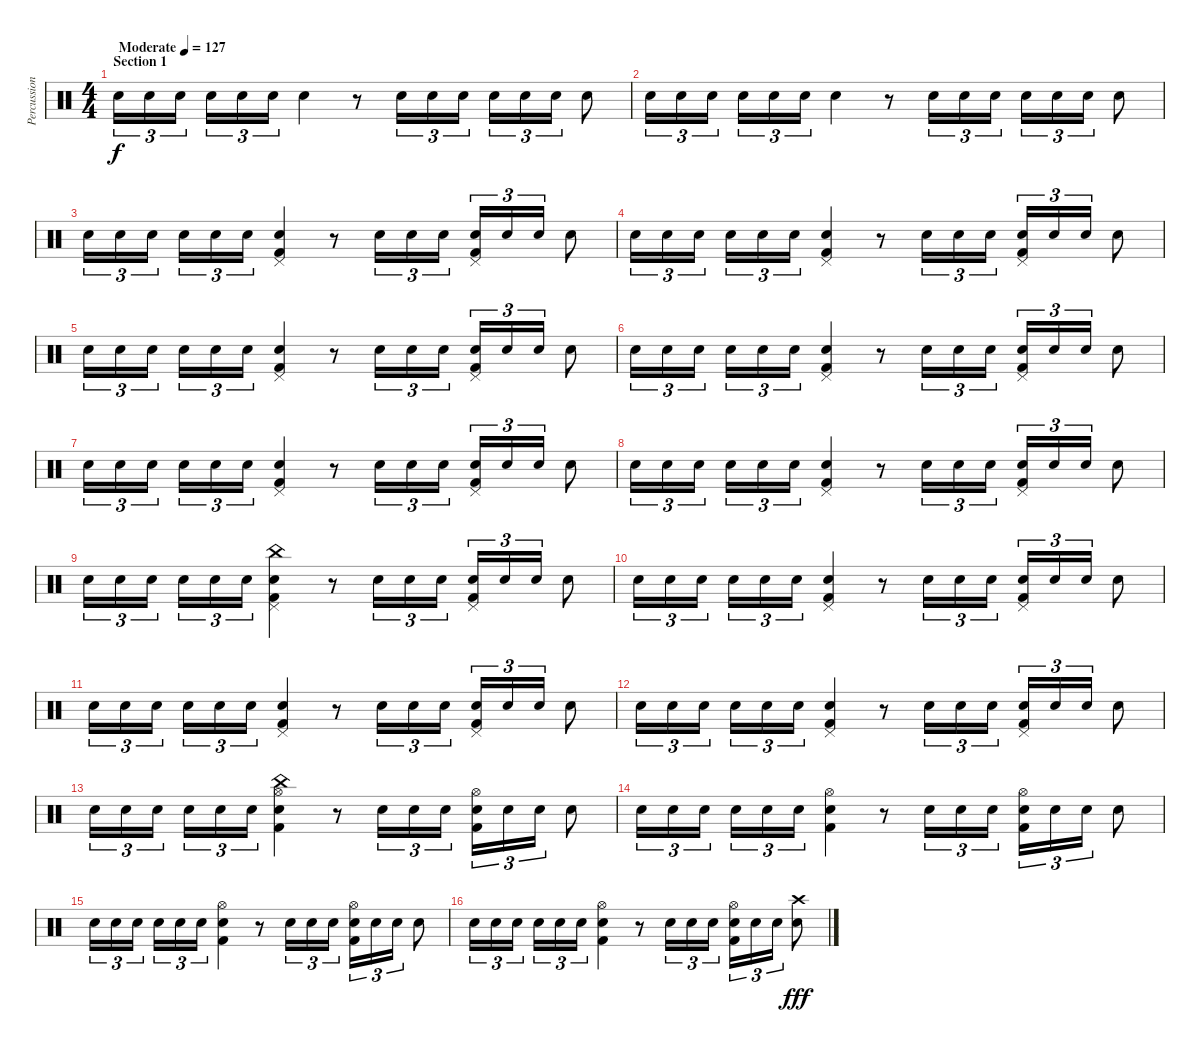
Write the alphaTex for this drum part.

\track ("Percussion" "Percussion") {instrument percussion}
\staff {score}
\articulation defaults
\ts (4 4)
\section ("" "Section 1")
\tempo (127 "Moderate")
\clef neutral
\ks c "Snare (hit) 2".16{tu (3 2) dy f} "Snare (hit) 2".16{tu (3 2)} "Snare (hit) 2".16{tu (3 2) beam splitsecondary} "Snare (hit) 2".16{tu (3 2)} "Snare (hit) 2".16{tu (3 2)} "Snare (hit) 2".16{tu (3 2)} "Snare (hit) 2".4
r.8 "Snare (hit) 2".16{tu (3 2)} "Snare (hit) 2".16{tu (3 2)} "Snare (hit) 2".16{tu (3 2)} "Snare (hit) 2".16{tu (3 2)} "Snare (hit) 2".16{tu (3 2)} "Snare (hit) 2".16{tu (3 2)} "Snare (hit) 2".8 |
"Snare (hit) 2".16{tu (3 2)} "Snare (hit) 2".16{tu (3 2)} "Snare (hit) 2".16{tu (3 2) beam splitsecondary} "Snare (hit) 2".16{tu (3 2)} "Snare (hit) 2".16{tu (3 2)} "Snare (hit) 2".16{tu (3 2)} "Snare (hit) 2".4 r.8 "Snare (hit) 2".16{tu (3 2)} "Snare (hit) 2".16{tu (3 2)} "Snare (hit) 2".16{tu (3 2)} "Snare (hit) 2".16{tu (3 2)} "Snare (hit) 2".16{tu (3 2)} "Snare (hit) 2".16{tu (3 2)} "Snare (hit) 2".8 |
"Snare (hit) 2".16{tu (3 2)} "Snare (hit) 2".16{tu (3 2)} "Snare (hit) 2".16{tu (3 2) beam splitsecondary} "Snare (hit) 2".16{tu (3 2)} "Snare (hit) 2".16{tu (3 2)} "Snare (hit) 2".16{tu (3 2)} ("Pedal Hi-Hat (hit)" "Snare (hit) 2" "Kick (hit) 2").4 r.8 "Snare (hit) 2".16{tu (3 2)} "Snare (hit) 2".16{tu (3 2)} "Snare (hit) 2".16{tu (3 2)} ("Pedal Hi-Hat (hit)" "Snare (hit) 2" "Kick (hit) 2").16{tu (3 2)} "Snare (hit) 2".16{tu (3 2)} "Snare (hit) 2".16{tu (3 2)} "Snare (hit) 2".8 |
"Snare (hit) 2".16{tu (3 2)} "Snare (hit) 2".16{tu (3 2)} "Snare (hit) 2".16{tu (3 2) beam splitsecondary} "Snare (hit) 2".16{tu (3 2)} "Snare (hit) 2".16{tu (3 2)} "Snare (hit) 2".16{tu (3 2)} ("Pedal Hi-Hat (hit)" "Snare (hit) 2" "Kick (hit) 2").4 r.8 "Snare (hit) 2".16{tu (3 2)} "Snare (hit) 2".16{tu (3 2)} "Snare (hit) 2".16{tu (3 2)} ("Pedal Hi-Hat (hit)" "Snare (hit) 2" "Kick (hit) 2").16{tu (3 2)} "Snare (hit) 2".16{tu (3 2)} "Snare (hit) 2".16{tu (3 2)} "Snare (hit) 2".8 |
"Snare (hit) 2".16{tu (3 2)} "Snare (hit) 2".16{tu (3 2)} "Snare (hit) 2".16{tu (3 2) beam splitsecondary} "Snare (hit) 2".16{tu (3 2)} "Snare (hit) 2".16{tu (3 2)} "Snare (hit) 2".16{tu (3 2)} ("Pedal Hi-Hat (hit)" "Snare (hit) 2" "Kick (hit) 2").4 r.8 "Snare (hit) 2".16{tu (3 2)} "Snare (hit) 2".16{tu (3 2)} "Snare (hit) 2".16{tu (3 2)} ("Pedal Hi-Hat (hit)" "Snare (hit) 2" "Kick (hit) 2").16{tu (3 2)} "Snare (hit) 2".16{tu (3 2)} "Snare (hit) 2".16{tu (3 2)} "Snare (hit) 2".8 |
"Snare (hit) 2".16{tu (3 2)} "Snare (hit) 2".16{tu (3 2)} "Snare (hit) 2".16{tu (3 2) beam splitsecondary} "Snare (hit) 2".16{tu (3 2)} "Snare (hit) 2".16{tu (3 2)} "Snare (hit) 2".16{tu (3 2)} ("Pedal Hi-Hat (hit)" "Snare (hit) 2" "Kick (hit) 2").4 r.8 "Snare (hit) 2".16{tu (3 2)} "Snare (hit) 2".16{tu (3 2)} "Snare (hit) 2".16{tu (3 2)} ("Pedal Hi-Hat (hit)" "Snare (hit) 2" "Kick (hit) 2").16{tu (3 2)} "Snare (hit) 2".16{tu (3 2)} "Snare (hit) 2".16{tu (3 2)} "Snare (hit) 2".8 |
"Snare (hit) 2".16{tu (3 2)} "Snare (hit) 2".16{tu (3 2)} "Snare (hit) 2".16{tu (3 2) beam splitsecondary} "Snare (hit) 2".16{tu (3 2)} "Snare (hit) 2".16{tu (3 2)} "Snare (hit) 2".16{tu (3 2)} ("Pedal Hi-Hat (hit)" "Snare (hit) 2" "Kick (hit) 2").4 r.8 "Snare (hit) 2".16{tu (3 2)} "Snare (hit) 2".16{tu (3 2)} "Snare (hit) 2".16{tu (3 2)} ("Pedal Hi-Hat (hit)" "Snare (hit) 2" "Kick (hit) 2").16{tu (3 2)} "Snare (hit) 2".16{tu (3 2)} "Snare (hit) 2".16{tu (3 2)} "Snare (hit) 2".8 |
"Snare (hit) 2".16{tu (3 2)} "Snare (hit) 2".16{tu (3 2)} "Snare (hit) 2".16{tu (3 2) beam splitsecondary} "Snare (hit) 2".16{tu (3 2)} "Snare (hit) 2".16{tu (3 2)} "Snare (hit) 2".16{tu (3 2)} ("Pedal Hi-Hat (hit)" "Snare (hit) 2" "Kick (hit) 2").4 r.8 "Snare (hit) 2".16{tu (3 2)} "Snare (hit) 2".16{tu (3 2)} "Snare (hit) 2".16{tu (3 2)} ("Pedal Hi-Hat (hit)" "Snare (hit) 2" "Kick (hit) 2").16{tu (3 2)} "Snare (hit) 2".16{tu (3 2)} "Snare (hit) 2".16{tu (3 2)} "Snare (hit) 2".8 |
"Snare (hit) 2".16{tu (3 2)} "Snare (hit) 2".16{tu (3 2)} "Snare (hit) 2".16{tu (3 2) beam splitsecondary} "Snare (hit) 2".16{tu (3 2)} "Snare (hit) 2".16{tu (3 2)} "Snare (hit) 2".16{tu (3 2)} ("China (hit)" "Pedal Hi-Hat (hit)" "Snare (hit) 2" "Kick (hit) 2").4 r.8 "Snare (hit) 2".16{tu (3 2)} "Snare (hit) 2".16{tu (3 2)} "Snare (hit) 2".16{tu (3 2)} ("Pedal Hi-Hat (hit)" "Snare (hit) 2" "Kick (hit) 2").16{tu (3 2)} "Snare (hit) 2".16{tu (3 2)} "Snare (hit) 2".16{tu (3 2)} "Snare (hit) 2".8 |
"Snare (hit) 2".16{tu (3 2)} "Snare (hit) 2".16{tu (3 2)} "Snare (hit) 2".16{tu (3 2) beam splitsecondary} "Snare (hit) 2".16{tu (3 2)} "Snare (hit) 2".16{tu (3 2)} "Snare (hit) 2".16{tu (3 2)} ("Pedal Hi-Hat (hit)" "Snare (hit) 2" "Kick (hit) 2").4 r.8 "Snare (hit) 2".16{tu (3 2)} "Snare (hit) 2".16{tu (3 2)} "Snare (hit) 2".16{tu (3 2)} ("Pedal Hi-Hat (hit)" "Snare (hit) 2" "Kick (hit) 2").16{tu (3 2)} "Snare (hit) 2".16{tu (3 2)} "Snare (hit) 2".16{tu (3 2)} "Snare (hit) 2".8 |
"Snare (hit) 2".16{tu (3 2)} "Snare (hit) 2".16{tu (3 2)} "Snare (hit) 2".16{tu (3 2) beam splitsecondary} "Snare (hit) 2".16{tu (3 2)} "Snare (hit) 2".16{tu (3 2)} "Snare (hit) 2".16{tu (3 2)} ("Pedal Hi-Hat (hit)" "Snare (hit) 2" "Kick (hit) 2").4 r.8 "Snare (hit) 2".16{tu (3 2)} "Snare (hit) 2".16{tu (3 2)} "Snare (hit) 2".16{tu (3 2)} ("Pedal Hi-Hat (hit)" "Snare (hit) 2" "Kick (hit) 2").16{tu (3 2)} "Snare (hit) 2".16{tu (3 2)} "Snare (hit) 2".16{tu (3 2)} "Snare (hit) 2".8 |
"Snare (hit) 2".16{tu (3 2)} "Snare (hit) 2".16{tu (3 2)} "Snare (hit) 2".16{tu (3 2) beam splitsecondary} "Snare (hit) 2".16{tu (3 2)} "Snare (hit) 2".16{tu (3 2)} "Snare (hit) 2".16{tu (3 2)} ("Pedal Hi-Hat (hit)" "Snare (hit) 2" "Kick (hit) 2").4 r.8 "Snare (hit) 2".16{tu (3 2)} "Snare (hit) 2".16{tu (3 2)} "Snare (hit) 2".16{tu (3 2)} ("Pedal Hi-Hat (hit)" "Snare (hit) 2" "Kick (hit) 2").16{tu (3 2)} "Snare (hit) 2".16{tu (3 2)} "Snare (hit) 2".16{tu (3 2)} "Snare (hit) 2".8 |
"Snare (hit) 2".16{tu (3 2)} "Snare (hit) 2".16{tu (3 2)} "Snare (hit) 2".16{tu (3 2) beam splitsecondary} "Snare (hit) 2".16{tu (3 2)} "Snare (hit) 2".16{tu (3 2)} "Snare (hit) 2".16{tu (3 2)} ("China (hit)" "Hi-Hat (open)" "Snare (hit) 2" "Kick (hit) 2").4 r.8 "Snare (hit) 2".16{tu (3 2)} "Snare (hit) 2".16{tu (3 2)} "Snare (hit) 2".16{tu (3 2)} ("Hi-Hat (open)" "Snare (hit) 2" "Kick (hit) 2").16{tu (3 2)} "Snare (hit) 2".16{tu (3 2)} "Snare (hit) 2".16{tu (3 2)} "Snare (hit) 2".8 |
"Snare (hit) 2".16{tu (3 2)} "Snare (hit) 2".16{tu (3 2)} "Snare (hit) 2".16{tu (3 2) beam splitsecondary} "Snare (hit) 2".16{tu (3 2)} "Snare (hit) 2".16{tu (3 2)} "Snare (hit) 2".16{tu (3 2)} ("Hi-Hat (open)" "Snare (hit) 2" "Kick (hit) 2").4 r.8 "Snare (hit) 2".16{tu (3 2)} "Snare (hit) 2".16{tu (3 2)} "Snare (hit) 2".16{tu (3 2)} ("Hi-Hat (open)" "Snare (hit) 2" "Kick (hit) 2").16{tu (3 2)} "Snare (hit) 2".16{tu (3 2)} "Snare (hit) 2".16{tu (3 2)} "Snare (hit) 2".8 |
"Snare (hit) 2".16{tu (3 2)} "Snare (hit) 2".16{tu (3 2)} "Snare (hit) 2".16{tu (3 2) beam splitsecondary} "Snare (hit) 2".16{tu (3 2)} "Snare (hit) 2".16{tu (3 2)} "Snare (hit) 2".16{tu (3 2)} ("Hi-Hat (open)" "Snare (hit) 2" "Kick (hit) 2").4 r.8 "Snare (hit) 2".16{tu (3 2)} "Snare (hit) 2".16{tu (3 2)} "Snare (hit) 2".16{tu (3 2)} ("Hi-Hat (open)" "Snare (hit) 2" "Kick (hit) 2").16{tu (3 2)} "Snare (hit) 2".16{tu (3 2)} "Snare (hit) 2".16{tu (3 2)} "Snare (hit) 2".8 |
"Snare (hit) 2".16{tu (3 2)} "Snare (hit) 2".16{tu (3 2)} "Snare (hit) 2".16{tu (3 2) beam splitsecondary} "Snare (hit) 2".16{tu (3 2)} "Snare (hit) 2".16{tu (3 2)} "Snare (hit) 2".16{tu (3 2)} ("Hi-Hat (open)" "Snare (hit) 2" "Kick (hit) 2").4 r.8 "Snare (hit) 2".16{tu (3 2)} "Snare (hit) 2".16{tu (3 2)} "Snare (hit) 2".16{tu (3 2)} ("Hi-Hat (open)" "Snare (hit) 2" "Kick (hit) 2").16{tu (3 2)} "Snare (hit) 2".16{tu (3 2)} "Snare (hit) 2".16{tu (3 2)} ("Crash high (hit)" "Snare (hit) 2").8{dy fff}
